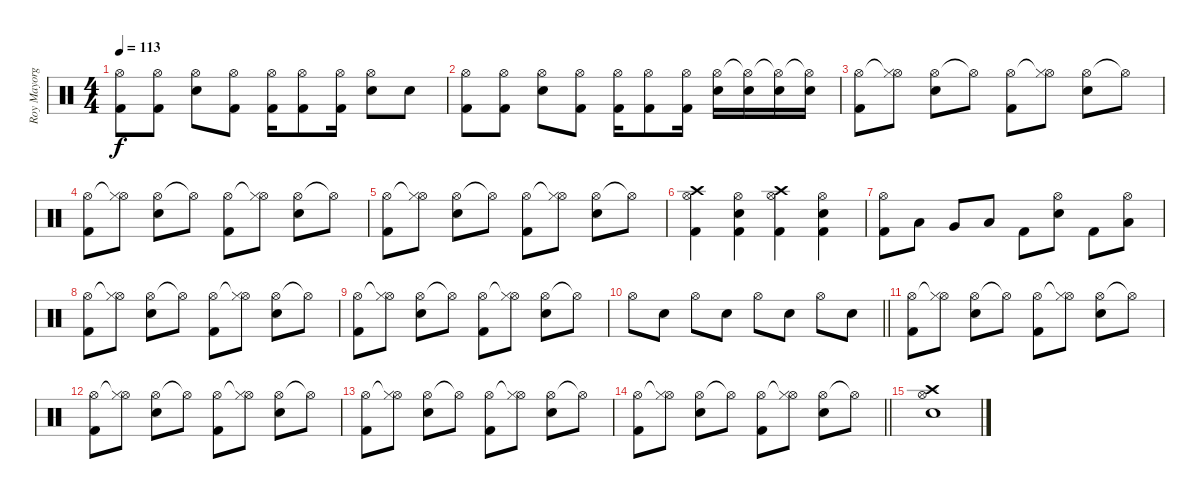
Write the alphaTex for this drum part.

\track ("Roy Mayorga" "Roy Mayorg") {instrument percussion}
\staff {score}
\articulation defaults
\ts (4 4)
\tempo 113
\clef neutral
\ks c
("Hi-Hat (open)" "Kick (hit) 2").8{dy f} ("Hi-Hat (open)" "Kick (hit) 2").8 ("Hi-Hat (open)" "Snare (hit) 2").8 ("Hi-Hat (open)" "Kick (hit) 2").8 ("Hi-Hat (open)" "Kick (hit) 2").16 ("Hi-Hat (open)" "Kick (hit) 2").8 ("Hi-Hat (open)" "Kick (hit) 2").16 ("Hi-Hat (open)" "Snare (hit) 2").8 "Snare (hit) 2".8 |
("Hi-Hat (open)" "Kick (hit) 2").8 ("Hi-Hat (open)" "Kick (hit) 2").8 ("Hi-Hat (open)" "Snare (hit) 2").8 ("Hi-Hat (open)" "Kick (hit) 2").8 ("Hi-Hat (open)" "Kick (hit) 2").16 ("Hi-Hat (open)" "Kick (hit) 2").8 ("Hi-Hat (open)" "Kick (hit) 2").16 ("Hi-Hat (open)" "Snare (hit) 2").16 ("Hi-Hat (open)"{t} "Snare (hit) 2").16 ("Hi-Hat (open)"{t} "Snare (hit) 2").16 ("Hi-Hat (open)"{t} "Snare (hit) 2").16 |
("Hi-Hat (open)" "Kick (hit) 2").8 ("Hi-Hat (open)"{t} "Hi-Hat (closed)").8 ("Hi-Hat (open)" "Snare (hit) 2").8 "Hi-Hat (open)"{t}.8 ("Hi-Hat (open)" "Kick (hit) 2").8 ("Hi-Hat (open)"{t} "Hi-Hat (closed)").8 ("Hi-Hat (open)" "Snare (hit) 2").8 "Hi-Hat (open)"{t}.8 |
("Hi-Hat (open)" "Kick (hit) 2").8 ("Hi-Hat (open)"{t} "Hi-Hat (closed)").8 ("Hi-Hat (open)" "Snare (hit) 2").8 "Hi-Hat (open)"{t}.8 ("Hi-Hat (open)" "Kick (hit) 2").8 ("Hi-Hat (open)"{t} "Hi-Hat (closed)").8 ("Hi-Hat (open)" "Snare (hit) 2").8 "Hi-Hat (open)"{t}.8 |
("Hi-Hat (open)" "Kick (hit) 2").8 ("Hi-Hat (open)"{t} "Hi-Hat (closed)").8 ("Hi-Hat (open)" "Snare (hit) 2").8 "Hi-Hat (open)"{t}.8 ("Hi-Hat (open)" "Kick (hit) 2").8 ("Hi-Hat (open)"{t} "Hi-Hat (closed)").8 ("Hi-Hat (open)" "Snare (hit) 2").8 "Hi-Hat (open)"{t}.8 |
("Crash high (hit)" "Hi-Hat (open)" "Kick (hit) 2").4 ("Hi-Hat (open)" "Snare (hit) 2" "Kick (hit) 2").4 ("Crash high (hit)" "Hi-Hat (open)" "Kick (hit) 2").4 ("Hi-Hat (open)" "Snare (hit) 2" "Kick (hit) 2").4 |
("Hi-Hat (open)" "Kick (hit) 2").8 "Low Tom (hit)".8 "Very Low Tom (hit)".8 "Low Floor Tom (hit)".8 "Kick (hit) 2".8 ("Hi-Hat (open)" "Snare (hit) 2").8 "Kick (hit) 2".8 ("Hi-Hat (open)" "Low Tom (hit)").8 |
("Hi-Hat (open)" "Kick (hit) 2").8 ("Hi-Hat (open)"{t} "Hi-Hat (closed)").8 ("Hi-Hat (open)" "Snare (hit) 2").8 "Hi-Hat (open)"{t}.8 ("Hi-Hat (open)" "Kick (hit) 2").8 ("Hi-Hat (open)"{t} "Hi-Hat (closed)").8 ("Hi-Hat (open)" "Snare (hit) 2").8 "Hi-Hat (open)"{t}.8 |
("Hi-Hat (open)" "Kick (hit) 2").8 ("Hi-Hat (open)"{t} "Hi-Hat (closed)").8 ("Hi-Hat (open)" "Snare (hit) 2").8 "Hi-Hat (open)"{t}.8 ("Hi-Hat (open)" "Kick (hit) 2").8 ("Hi-Hat (open)"{t} "Hi-Hat (closed)").8 ("Hi-Hat (open)" "Snare (hit) 2").8 "Hi-Hat (open)"{t}.8 |
\barLineRight lightlight "Hi-Hat (open)".8 "Snare (hit) 2".8 "Hi-Hat (open)".8 "Snare (hit) 2".8 "Hi-Hat (open)".8 "Snare (hit) 2".8 "Hi-Hat (open)".8 "Snare (hit) 2".8
|
("Hi-Hat (open)" "Kick (hit) 2").8 ("Hi-Hat (open)"{t} "Hi-Hat (closed)").8 ("Hi-Hat (open)" "Snare (hit) 2").8 "Hi-Hat (open)"{t}.8 ("Hi-Hat (open)" "Kick (hit) 2").8 ("Hi-Hat (open)"{t} "Hi-Hat (closed)").8 ("Hi-Hat (open)" "Snare (hit) 2").8 "Hi-Hat (open)"{t}.8 |
("Hi-Hat (open)" "Kick (hit) 2").8 ("Hi-Hat (open)"{t} "Hi-Hat (closed)").8 ("Hi-Hat (open)" "Snare (hit) 2").8 "Hi-Hat (open)"{t}.8 ("Hi-Hat (open)" "Kick (hit) 2").8 ("Hi-Hat (open)"{t} "Hi-Hat (closed)").8 ("Hi-Hat (open)" "Snare (hit) 2").8 "Hi-Hat (open)"{t}.8 |
("Hi-Hat (open)" "Kick (hit) 2").8 ("Hi-Hat (open)"{t} "Hi-Hat (closed)").8 ("Hi-Hat (open)" "Snare (hit) 2").8 "Hi-Hat (open)"{t}.8 ("Hi-Hat (open)" "Kick (hit) 2").8 ("Hi-Hat (open)"{t} "Hi-Hat (closed)").8 ("Hi-Hat (open)" "Snare (hit) 2").8 "Hi-Hat (open)"{t}.8 |
\barLineRight lightlight
("Hi-Hat (open)" "Kick (hit) 2").8 ("Hi-Hat (open)"{t} "Hi-Hat (closed)").8 ("Hi-Hat (open)" "Snare (hit) 2").8 "Hi-Hat (open)"{t}.8 ("Hi-Hat (open)" "Kick (hit) 2").8 ("Hi-Hat (open)"{t} "Hi-Hat (closed)").8 ("Hi-Hat (open)" "Snare (hit) 2").8 "Hi-Hat (open)"{t}.8 |
("Crash high (hit)" "Hi-Hat (open)" "Snare (hit) 2").1
